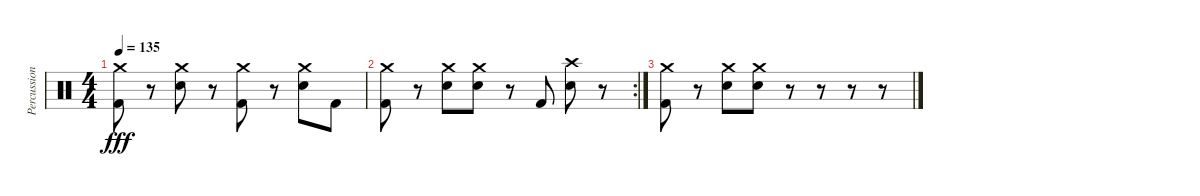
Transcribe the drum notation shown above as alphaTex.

\track ("Percussions" "Percussion") {instrument percussion}
\staff {score}
\articulation defaults
\ts (4 4)
\tempo 135
\clef neutral
\ks c
("Crash medium (hit)" "Kick (hit) 2").8{dy fff} r.8 ("Crash medium (hit)" "Electric Snare (hit)").8 r.8 ("Crash medium (hit)" "Kick (hit) 2").8 r.8 ("Crash medium (hit)" "Electric Snare (hit)").8 "Kick (hit) 2".8 |
\rc 2
("Crash medium (hit)" "Kick (hit) 2").8 r.8 ("Crash medium (hit)" "Electric Snare (hit)").8 ("Crash medium (hit)" "Electric Snare (hit)").8 r.8 "Kick (hit) 2".8 ("Crash high (hit)" "Electric Snare (hit)").8 r.8 |
("Crash medium (hit)" "Kick (hit) 2").8 r.8 ("Crash medium (hit)" "Electric Snare (hit)").8 ("Crash medium (hit)" "Electric Snare (hit)").8 r.8 r.8 r.8 r.8
